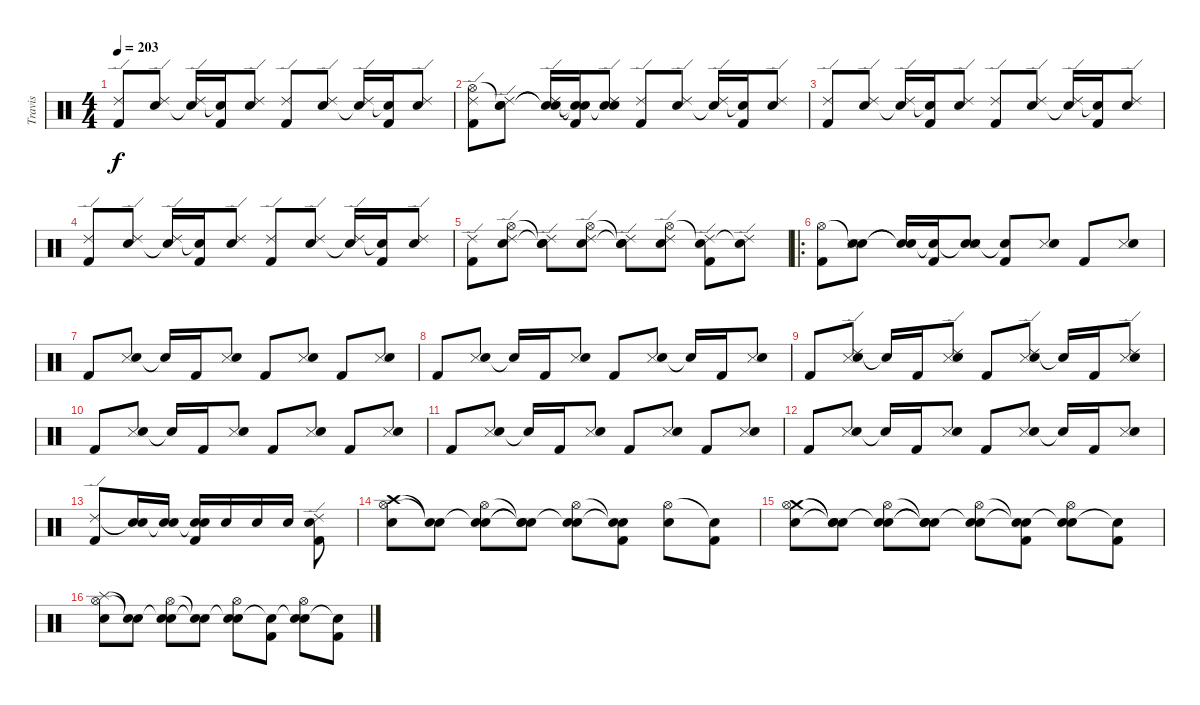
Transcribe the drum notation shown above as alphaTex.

\track ("Travis" "Travis") {instrument percussion}
\staff {score}
\articulation defaults
\ts (4 4)
\tempo 203
\clef neutral
\ks c
("Ride (edge) 2" "Kick (hit) 2").8{dy f} ("Ride (edge) 2" "Electric Snare (hit)").8 ("Ride (edge) 2" "Snare (hit)"{t}).16 ("Snare (hit)"{t} "Kick (hit) 2").16 ("Ride (edge) 2" "Electric Snare (hit)").8 ("Ride (edge) 2" "Kick (hit) 2").8 ("Ride (edge) 2" "Electric Snare (hit)").8 ("Ride (edge) 2" "Snare (hit)"{t}).16 ("Snare (hit)"{t} "Kick (hit) 2").16 ("Ride (edge) 2" "Electric Snare (hit)").8 |
("Hi-Hat (open)" "Ride (edge) 2" "Kick (hit) 2").8 ("Snare (hit)"{t} "Ride (edge) 2" "Electric Snare (hit)").8 ("Snare (hit)"{t} "Ride (edge) 2" "Snare (hit)"{t}).16 ("Snare (hit)"{t} "Snare (hit)"{t} "Kick (hit) 2").16 ("Snare (hit)"{t} "Ride (edge) 2" "Electric Snare (hit)").8 ("Ride (edge) 2" "Kick (hit) 2").8 ("Ride (edge) 2" "Electric Snare (hit)").8 ("Ride (edge) 2" "Snare (hit)"{t}).16 ("Snare (hit)"{t} "Kick (hit) 2").16 ("Ride (edge) 2" "Electric Snare (hit)").8 |
("Ride (edge) 2" "Kick (hit) 2").8 ("Ride (edge) 2" "Electric Snare (hit)").8 ("Ride (edge) 2" "Snare (hit)"{t}).16 ("Snare (hit)"{t} "Kick (hit) 2").16 ("Ride (edge) 2" "Electric Snare (hit)").8 ("Ride (edge) 2" "Kick (hit) 2").8 ("Ride (edge) 2" "Electric Snare (hit)").8 ("Ride (edge) 2" "Snare (hit)"{t}).16 ("Snare (hit)"{t} "Kick (hit) 2").16 ("Ride (edge) 2" "Electric Snare (hit)").8 |
("Ride (edge) 2" "Kick (hit) 2").8 ("Ride (edge) 2" "Electric Snare (hit)").8 ("Ride (edge) 2" "Snare (hit)"{t}).16 ("Snare (hit)"{t} "Kick (hit) 2").16 ("Ride (edge) 2" "Electric Snare (hit)").8 ("Ride (edge) 2" "Kick (hit) 2").8 ("Ride (edge) 2" "Electric Snare (hit)").8 ("Ride (edge) 2" "Snare (hit)"{t}).16 ("Snare (hit)"{t} "Kick (hit) 2").16 ("Ride (edge) 2" "Electric Snare (hit)").8 |
("Ride (edge) 2" "Kick (hit) 2").8 ("Ride (edge) 2" "Hi-Hat (open)" "Electric Snare (hit)").8 ("Ride (edge) 2" "Snare (hit)"{t} "Snare (hit)"{t}).8 ("Ride (edge) 2" "Hi-Hat (open)" "Electric Snare (hit)").8 ("Ride (edge) 2" "Snare (hit)"{t} "Snare (hit)"{t}).8 ("Ride (edge) 2" "Hi-Hat (open)" "Electric Snare (hit)").8 ("Ride (edge) 2" "Snare (hit)"{t} "Kick (hit) 2").8 ("Ride (edge) 2" "Snare (hit)"{t}).8 |
\ro
("Hi-Hat (open)" "Kick (hit) 2").8 ("Snare (hit)"{t} "Snare (side stick) 3" "Electric Snare (hit)").8 ("Snare (hit)"{t} "Snare (hit)"{t}).16 ("Snare (hit)"{t} "Kick (hit) 2").16 ("Snare (hit)"{t} "Snare (side stick) 3" "Electric Snare (hit)").8 ("Snare (hit)"{t} "Kick (hit) 2").8 ("Snare (side stick) 3" "Electric Snare (hit)").8 "Kick (hit) 2".8 ("Snare (side stick) 3" "Electric Snare (hit)").8 |
"Kick (hit) 2".8 ("Snare (side stick) 3" "Electric Snare (hit)").8 "Snare (hit)"{t}.16 "Kick (hit) 2".16 ("Snare (side stick) 3" "Electric Snare (hit)").8 "Kick (hit) 2".8 ("Snare (side stick) 3" "Electric Snare (hit)").8 "Kick (hit) 2".8 ("Snare (side stick) 3" "Electric Snare (hit)").8 |
"Kick (hit) 2".8 ("Snare (side stick) 3" "Electric Snare (hit)").8 "Snare (hit)"{t}.16 "Kick (hit) 2".16 ("Snare (side stick) 3" "Electric Snare (hit)").8 "Kick (hit) 2".8 ("Snare (side stick) 3" "Electric Snare (hit)").8 "Snare (hit)"{t}.16 "Kick (hit) 2".16 ("Snare (side stick) 3" "Electric Snare (hit)").8 |
"Kick (hit) 2".8 ("Ride (edge) 2" "Snare (side stick) 3" "Electric Snare (hit)").8 "Snare (hit)"{t}.16 "Kick (hit) 2".16 ("Ride (edge) 2" "Snare (side stick) 3" "Electric Snare (hit)").8 "Kick (hit) 2".8 ("Ride (edge) 2" "Snare (side stick) 3" "Electric Snare (hit)").8 "Snare (hit)"{t}.16 "Kick (hit) 2".16 ("Ride (edge) 2" "Snare (side stick) 3" "Electric Snare (hit)").8 |
"Kick (hit) 2".8 ("Snare (side stick) 3" "Electric Snare (hit)").8 "Snare (hit)"{t}.16 "Kick (hit) 2".16 ("Snare (side stick) 3" "Electric Snare (hit)").8 "Kick (hit) 2".8 ("Snare (side stick) 3" "Electric Snare (hit)").8 "Kick (hit) 2".8 ("Snare (side stick) 3" "Electric Snare (hit)").8 |
"Kick (hit) 2".8 ("Snare (side stick) 3" "Electric Snare (hit)").8 "Snare (hit)"{t}.16 "Kick (hit) 2".16 ("Snare (side stick) 3" "Electric Snare (hit)").8 "Kick (hit) 2".8 ("Snare (side stick) 3" "Electric Snare (hit)").8 "Kick (hit) 2".8 ("Snare (side stick) 3" "Electric Snare (hit)").8 |
"Kick (hit) 2".8 ("Snare (side stick) 3" "Electric Snare (hit)").8 "Snare (hit)"{t}.16 "Kick (hit) 2".16 ("Snare (side stick) 3" "Electric Snare (hit)").8 "Kick (hit) 2".8 ("Snare (side stick) 3" "Electric Snare (hit)").8 "Snare (hit)"{t}.16 "Kick (hit) 2".16 ("Snare (side stick) 3" "Electric Snare (hit)").8 |
("Ride (edge) 2" "Kick (hit) 2").8 ("Snare (hit)"{t} "Electric Snare (hit)").16 ("Snare (hit)"{t} "Electric Snare (hit)").16 ("Snare (hit)"{t} "Electric Snare (hit)" "Kick (hit) 2").16 "Electric Snare (hit)".16 "Electric Snare (hit)".16 "Electric Snare (hit)".16 ("Ride (edge) 2" "Electric Snare (hit)" "Kick (hit) 2").8 |
("Crash high (hit)" "Hi-Hat (open)" "Electric Snare (hit)").8 ("Snare (hit)"{t} "Electric Snare (hit)"{t}).8 ("Snare (hit)"{t} "Hi-Hat (open)" "Electric Snare (hit)").8 ("Snare (hit)"{t} "Snare (hit)"{t} "Snare (hit)"{t}).8 ("Snare (hit)"{t} "Hi-Hat (open)" "Electric Snare (hit)").8 ("Snare (hit)"{t} "Snare (hit)"{t} "Kick (hit) 2").8 ("Hi-Hat (open)" "Electric Snare (hit)").8 ("Snare (hit)"{t} "Kick (hit) 2").8 |
("Crash medium (hit)" "Hi-Hat (open)" "Electric Snare (hit)").8 ("Snare (hit)"{t} "Snare (hit)"{t} "Snare (hit)"{t}).8 ("Snare (hit)"{t} "Hi-Hat (open)" "Electric Snare (hit)").8 ("Snare (hit)"{t} "Snare (hit)"{t} "Snare (hit)"{t}).8 ("Snare (hit)"{t} "Hi-Hat (open)" "Electric Snare (hit)").8 ("Snare (hit)"{t} "Snare (hit)"{t} "Kick (hit) 2").8 ("Snare (hit)"{t} "Hi-Hat (open)" "Electric Snare (hit)").8 ("Snare (hit)"{t} "Kick (hit) 2").8 |
("Splash (hit)" "Hi-Hat (open)" "Electric Snare (hit)").8 ("Snare (hit)"{t} "Snare (hit)"{t}).8 ("Snare (hit)"{t} "Hi-Hat (open)" "Electric Snare (hit)").8 ("Snare (hit)"{t} "Snare (hit)"{t}).8 ("Snare (hit)"{t} "Hi-Hat (open)" "Electric Snare (hit)").8 ("Snare (hit)"{t} "Kick (hit) 2").8 ("Snare (hit)"{t} "Hi-Hat (open)" "Electric Snare (hit)").8 ("Snare (hit)"{t} "Kick (hit) 2").8
